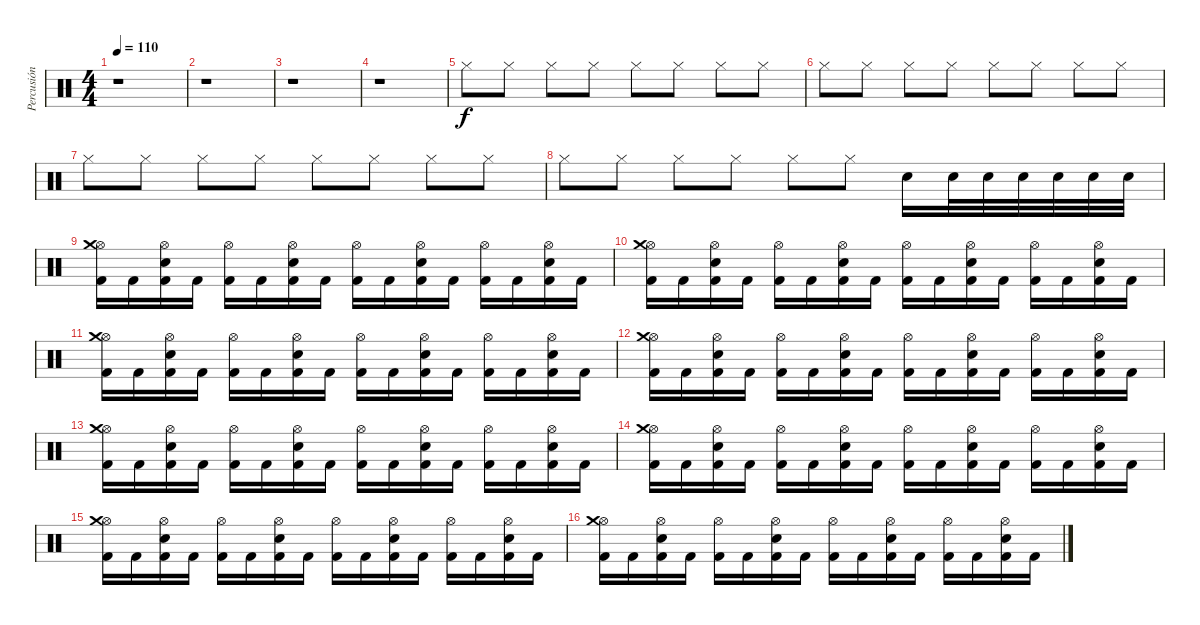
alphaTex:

\track ("Percusión" "Percusión") {instrument percussion}
\staff {score}
\articulation defaults
\ts (4 4)
\tempo 110
\clef neutral
\ks c
r.1{dy f} |
r.1 |
r.1 |
r.1 |
"Hi-Hat (closed)".8 "Hi-Hat (closed)".8 "Hi-Hat (closed)".8 "Hi-Hat (closed)".8 "Hi-Hat (closed)".8 "Hi-Hat (closed)".8 "Hi-Hat (closed)".8 "Hi-Hat (closed)".8 |
"Hi-Hat (closed)".8 "Hi-Hat (closed)".8 "Hi-Hat (closed)".8 "Hi-Hat (closed)".8 "Hi-Hat (closed)".8 "Hi-Hat (closed)".8 "Hi-Hat (closed)".8 "Hi-Hat (closed)".8 |
"Hi-Hat (closed)".8 "Hi-Hat (closed)".8 "Hi-Hat (closed)".8 "Hi-Hat (closed)".8 "Hi-Hat (closed)".8 "Hi-Hat (closed)".8 "Hi-Hat (closed)".8 "Hi-Hat (closed)".8 |
"Hi-Hat (closed)".8 "Hi-Hat (closed)".8 "Hi-Hat (closed)".8 "Hi-Hat (closed)".8 "Hi-Hat (closed)".8 "Hi-Hat (closed)".8 "Electric Snare (hit)".16 "Electric Snare (hit)".32 "Electric Snare (hit)".32 "Electric Snare (hit)".32 "Electric Snare (hit)".32 "Electric Snare (hit)".32 "Electric Snare (hit)".32 |
("Hi-Hat (open)" "Kick (hit) 2" "Crash medium (hit)").16 "Kick (hit) 2".16 ("Hi-Hat (open)" "Electric Snare (hit)" "Kick (hit) 2").16 "Kick (hit) 2".16 ("Hi-Hat (open)" "Kick (hit) 2").16 "Kick (hit) 2".16 ("Hi-Hat (open)" "Electric Snare (hit)" "Kick (hit) 2").16 "Kick (hit) 2".16 ("Hi-Hat (open)" "Kick (hit) 2").16 "Kick (hit) 2".16 ("Hi-Hat (open)" "Electric Snare (hit)" "Kick (hit) 2").16 "Kick (hit) 2".16 ("Hi-Hat (open)" "Kick (hit) 2").16 "Kick (hit) 2".16 ("Hi-Hat (open)" "Electric Snare (hit)" "Kick (hit) 2").16 "Kick (hit) 2".16 |
("Hi-Hat (open)" "Kick (hit) 2" "Crash medium (hit)").16 "Kick (hit) 2".16 ("Hi-Hat (open)" "Electric Snare (hit)" "Kick (hit) 2").16 "Kick (hit) 2".16 ("Hi-Hat (open)" "Kick (hit) 2").16 "Kick (hit) 2".16 ("Hi-Hat (open)" "Electric Snare (hit)" "Kick (hit) 2").16 "Kick (hit) 2".16 ("Hi-Hat (open)" "Kick (hit) 2").16 "Kick (hit) 2".16 ("Hi-Hat (open)" "Electric Snare (hit)" "Kick (hit) 2").16 "Kick (hit) 2".16 ("Hi-Hat (open)" "Kick (hit) 2").16 "Kick (hit) 2".16 ("Hi-Hat (open)" "Electric Snare (hit)" "Kick (hit) 2").16 "Kick (hit) 2".16 |
("Hi-Hat (open)" "Kick (hit) 2" "Crash medium (hit)").16 "Kick (hit) 2".16 ("Hi-Hat (open)" "Electric Snare (hit)" "Kick (hit) 2").16 "Kick (hit) 2".16 ("Hi-Hat (open)" "Kick (hit) 2").16 "Kick (hit) 2".16 ("Hi-Hat (open)" "Electric Snare (hit)" "Kick (hit) 2").16 "Kick (hit) 2".16 ("Hi-Hat (open)" "Kick (hit) 2").16 "Kick (hit) 2".16 ("Hi-Hat (open)" "Electric Snare (hit)" "Kick (hit) 2").16 "Kick (hit) 2".16 ("Hi-Hat (open)" "Kick (hit) 2").16 "Kick (hit) 2".16 ("Hi-Hat (open)" "Electric Snare (hit)" "Kick (hit) 2").16 "Kick (hit) 2".16 |
("Hi-Hat (open)" "Kick (hit) 2" "Crash medium (hit)").16 "Kick (hit) 2".16 ("Hi-Hat (open)" "Electric Snare (hit)" "Kick (hit) 2").16 "Kick (hit) 2".16 ("Hi-Hat (open)" "Kick (hit) 2").16 "Kick (hit) 2".16 ("Hi-Hat (open)" "Electric Snare (hit)" "Kick (hit) 2").16 "Kick (hit) 2".16 ("Hi-Hat (open)" "Kick (hit) 2").16 "Kick (hit) 2".16 ("Hi-Hat (open)" "Electric Snare (hit)" "Kick (hit) 2").16 "Kick (hit) 2".16 ("Hi-Hat (open)" "Kick (hit) 2").16 "Kick (hit) 2".16 ("Hi-Hat (open)" "Electric Snare (hit)" "Kick (hit) 2").16 "Kick (hit) 2".16 |
("Hi-Hat (open)" "Kick (hit) 2" "Crash medium (hit)").16 "Kick (hit) 2".16 ("Hi-Hat (open)" "Electric Snare (hit)" "Kick (hit) 2").16 "Kick (hit) 2".16 ("Hi-Hat (open)" "Kick (hit) 2").16 "Kick (hit) 2".16 ("Hi-Hat (open)" "Electric Snare (hit)" "Kick (hit) 2").16 "Kick (hit) 2".16 ("Hi-Hat (open)" "Kick (hit) 2").16 "Kick (hit) 2".16 ("Hi-Hat (open)" "Electric Snare (hit)" "Kick (hit) 2").16 "Kick (hit) 2".16 ("Hi-Hat (open)" "Kick (hit) 2").16 "Kick (hit) 2".16 ("Hi-Hat (open)" "Electric Snare (hit)" "Kick (hit) 2").16 "Kick (hit) 2".16 |
("Hi-Hat (open)" "Kick (hit) 2" "Crash medium (hit)").16 "Kick (hit) 2".16 ("Hi-Hat (open)" "Electric Snare (hit)" "Kick (hit) 2").16 "Kick (hit) 2".16 ("Hi-Hat (open)" "Kick (hit) 2").16 "Kick (hit) 2".16 ("Hi-Hat (open)" "Electric Snare (hit)" "Kick (hit) 2").16 "Kick (hit) 2".16 ("Hi-Hat (open)" "Kick (hit) 2").16 "Kick (hit) 2".16 ("Hi-Hat (open)" "Electric Snare (hit)" "Kick (hit) 2").16 "Kick (hit) 2".16 ("Hi-Hat (open)" "Kick (hit) 2").16 "Kick (hit) 2".16 ("Hi-Hat (open)" "Electric Snare (hit)" "Kick (hit) 2").16 "Kick (hit) 2".16 |
("Hi-Hat (open)" "Kick (hit) 2" "Crash medium (hit)").16 "Kick (hit) 2".16 ("Hi-Hat (open)" "Electric Snare (hit)" "Kick (hit) 2").16 "Kick (hit) 2".16 ("Hi-Hat (open)" "Kick (hit) 2").16 "Kick (hit) 2".16 ("Hi-Hat (open)" "Electric Snare (hit)" "Kick (hit) 2").16 "Kick (hit) 2".16 ("Hi-Hat (open)" "Kick (hit) 2").16 "Kick (hit) 2".16 ("Hi-Hat (open)" "Electric Snare (hit)" "Kick (hit) 2").16 "Kick (hit) 2".16 ("Hi-Hat (open)" "Kick (hit) 2").16 "Kick (hit) 2".16 ("Hi-Hat (open)" "Electric Snare (hit)" "Kick (hit) 2").16 "Kick (hit) 2".16 |
("Hi-Hat (open)" "Kick (hit) 2" "Crash medium (hit)").16 "Kick (hit) 2".16 ("Hi-Hat (open)" "Electric Snare (hit)" "Kick (hit) 2").16 "Kick (hit) 2".16 ("Hi-Hat (open)" "Kick (hit) 2").16 "Kick (hit) 2".16 ("Hi-Hat (open)" "Electric Snare (hit)" "Kick (hit) 2").16 "Kick (hit) 2".16 ("Hi-Hat (open)" "Kick (hit) 2").16 "Kick (hit) 2".16 ("Hi-Hat (open)" "Electric Snare (hit)" "Kick (hit) 2").16 "Kick (hit) 2".16 ("Hi-Hat (open)" "Kick (hit) 2").16 "Kick (hit) 2".16 ("Hi-Hat (open)" "Electric Snare (hit)" "Kick (hit) 2").16 "Kick (hit) 2".16
